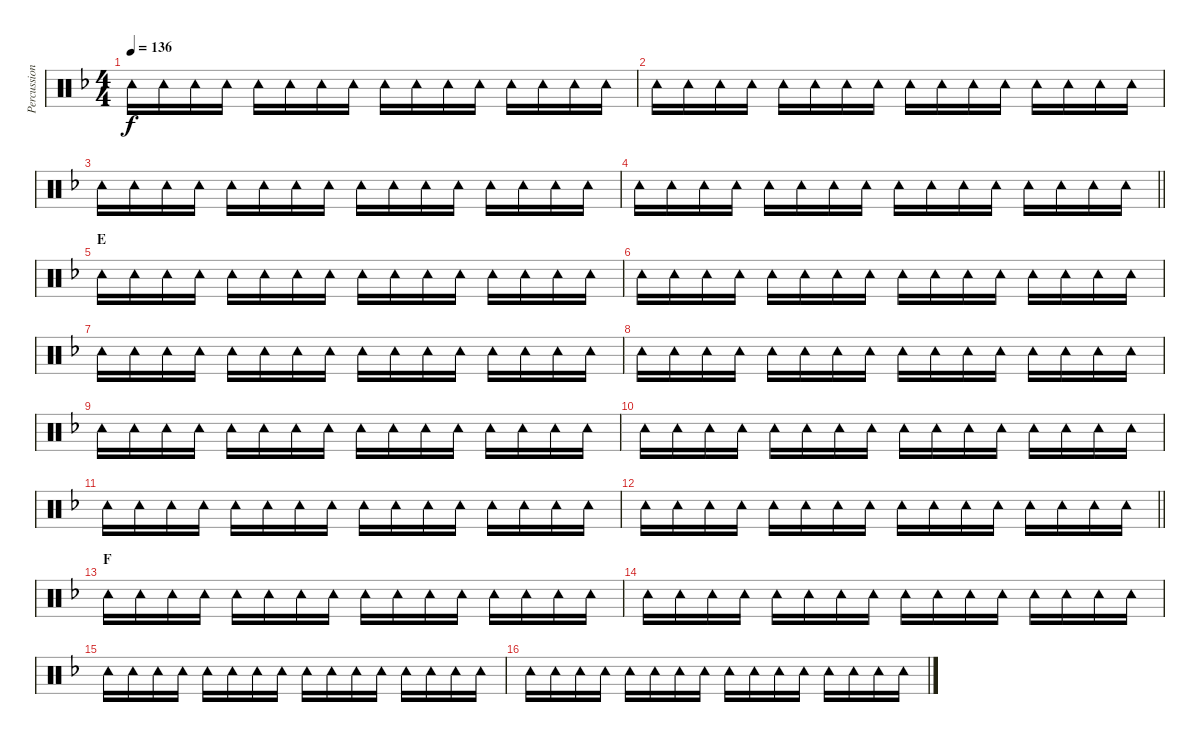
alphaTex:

\track ("Percussion" "Percussion") {instrument percussion}
\staff {score}
\articulation defaults
\ts (4 4)
\tempo 136
\clef neutral
\ks dminor "Tambourine (hit)".16{dy f} "Tambourine (hit)".16 "Tambourine (hit)".16 "Tambourine (hit)".16 "Tambourine (hit)".16 "Tambourine (hit)".16 "Tambourine (hit)".16 "Tambourine (hit)".16 "Tambourine (hit)".16 "Tambourine (hit)".16 "Tambourine (hit)".16 "Tambourine (hit)".16 "Tambourine (hit)".16 "Tambourine (hit)".16 "Tambourine (hit)".16 "Tambourine (hit)".16
|
"Tambourine (hit)".16 "Tambourine (hit)".16 "Tambourine (hit)".16 "Tambourine (hit)".16 "Tambourine (hit)".16 "Tambourine (hit)".16 "Tambourine (hit)".16 "Tambourine (hit)".16 "Tambourine (hit)".16 "Tambourine (hit)".16 "Tambourine (hit)".16 "Tambourine (hit)".16 "Tambourine (hit)".16 "Tambourine (hit)".16 "Tambourine (hit)".16 "Tambourine (hit)".16 |
"Tambourine (hit)".16 "Tambourine (hit)".16 "Tambourine (hit)".16 "Tambourine (hit)".16 "Tambourine (hit)".16 "Tambourine (hit)".16 "Tambourine (hit)".16 "Tambourine (hit)".16 "Tambourine (hit)".16 "Tambourine (hit)".16 "Tambourine (hit)".16 "Tambourine (hit)".16 "Tambourine (hit)".16 "Tambourine (hit)".16 "Tambourine (hit)".16 "Tambourine (hit)".16 |
\barLineRight lightlight "Tambourine (hit)".16 "Tambourine (hit)".16 "Tambourine (hit)".16 "Tambourine (hit)".16 "Tambourine (hit)".16 "Tambourine (hit)".16 "Tambourine (hit)".16 "Tambourine (hit)".16 "Tambourine (hit)".16 "Tambourine (hit)".16 "Tambourine (hit)".16 "Tambourine (hit)".16 "Tambourine (hit)".16 "Tambourine (hit)".16 "Tambourine (hit)".16 "Tambourine (hit)".16
|
\section ("" "E")
"Tambourine (hit)".16 "Tambourine (hit)".16 "Tambourine (hit)".16 "Tambourine (hit)".16 "Tambourine (hit)".16 "Tambourine (hit)".16 "Tambourine (hit)".16 "Tambourine (hit)".16 "Tambourine (hit)".16 "Tambourine (hit)".16 "Tambourine (hit)".16 "Tambourine (hit)".16 "Tambourine (hit)".16 "Tambourine (hit)".16 "Tambourine (hit)".16 "Tambourine (hit)".16 |
"Tambourine (hit)".16 "Tambourine (hit)".16 "Tambourine (hit)".16 "Tambourine (hit)".16 "Tambourine (hit)".16 "Tambourine (hit)".16 "Tambourine (hit)".16 "Tambourine (hit)".16 "Tambourine (hit)".16 "Tambourine (hit)".16 "Tambourine (hit)".16 "Tambourine (hit)".16 "Tambourine (hit)".16 "Tambourine (hit)".16 "Tambourine (hit)".16 "Tambourine (hit)".16 |
"Tambourine (hit)".16 "Tambourine (hit)".16 "Tambourine (hit)".16 "Tambourine (hit)".16 "Tambourine (hit)".16 "Tambourine (hit)".16 "Tambourine (hit)".16 "Tambourine (hit)".16 "Tambourine (hit)".16 "Tambourine (hit)".16 "Tambourine (hit)".16 "Tambourine (hit)".16 "Tambourine (hit)".16 "Tambourine (hit)".16 "Tambourine (hit)".16 "Tambourine (hit)".16 |
"Tambourine (hit)".16 "Tambourine (hit)".16 "Tambourine (hit)".16 "Tambourine (hit)".16 "Tambourine (hit)".16 "Tambourine (hit)".16 "Tambourine (hit)".16 "Tambourine (hit)".16 "Tambourine (hit)".16 "Tambourine (hit)".16 "Tambourine (hit)".16 "Tambourine (hit)".16 "Tambourine (hit)".16 "Tambourine (hit)".16 "Tambourine (hit)".16 "Tambourine (hit)".16 |
"Tambourine (hit)".16 "Tambourine (hit)".16 "Tambourine (hit)".16 "Tambourine (hit)".16 "Tambourine (hit)".16 "Tambourine (hit)".16 "Tambourine (hit)".16 "Tambourine (hit)".16 "Tambourine (hit)".16 "Tambourine (hit)".16 "Tambourine (hit)".16 "Tambourine (hit)".16 "Tambourine (hit)".16 "Tambourine (hit)".16 "Tambourine (hit)".16 "Tambourine (hit)".16 |
"Tambourine (hit)".16 "Tambourine (hit)".16 "Tambourine (hit)".16 "Tambourine (hit)".16 "Tambourine (hit)".16 "Tambourine (hit)".16 "Tambourine (hit)".16 "Tambourine (hit)".16 "Tambourine (hit)".16 "Tambourine (hit)".16 "Tambourine (hit)".16 "Tambourine (hit)".16 "Tambourine (hit)".16 "Tambourine (hit)".16 "Tambourine (hit)".16 "Tambourine (hit)".16 |
"Tambourine (hit)".16 "Tambourine (hit)".16 "Tambourine (hit)".16 "Tambourine (hit)".16 "Tambourine (hit)".16 "Tambourine (hit)".16 "Tambourine (hit)".16 "Tambourine (hit)".16 "Tambourine (hit)".16 "Tambourine (hit)".16 "Tambourine (hit)".16 "Tambourine (hit)".16 "Tambourine (hit)".16 "Tambourine (hit)".16 "Tambourine (hit)".16 "Tambourine (hit)".16 |
\barLineRight lightlight "Tambourine (hit)".16 "Tambourine (hit)".16 "Tambourine (hit)".16 "Tambourine (hit)".16 "Tambourine (hit)".16 "Tambourine (hit)".16 "Tambourine (hit)".16 "Tambourine (hit)".16 "Tambourine (hit)".16 "Tambourine (hit)".16 "Tambourine (hit)".16 "Tambourine (hit)".16 "Tambourine (hit)".16 "Tambourine (hit)".16 "Tambourine (hit)".16 "Tambourine (hit)".16
|
\section ("" "F")
"Tambourine (hit)".16 "Tambourine (hit)".16 "Tambourine (hit)".16 "Tambourine (hit)".16 "Tambourine (hit)".16 "Tambourine (hit)".16 "Tambourine (hit)".16 "Tambourine (hit)".16 "Tambourine (hit)".16 "Tambourine (hit)".16 "Tambourine (hit)".16 "Tambourine (hit)".16 "Tambourine (hit)".16 "Tambourine (hit)".16 "Tambourine (hit)".16 "Tambourine (hit)".16 |
"Tambourine (hit)".16 "Tambourine (hit)".16 "Tambourine (hit)".16 "Tambourine (hit)".16 "Tambourine (hit)".16 "Tambourine (hit)".16 "Tambourine (hit)".16 "Tambourine (hit)".16 "Tambourine (hit)".16 "Tambourine (hit)".16 "Tambourine (hit)".16 "Tambourine (hit)".16 "Tambourine (hit)".16 "Tambourine (hit)".16 "Tambourine (hit)".16 "Tambourine (hit)".16 |
"Tambourine (hit)".16 "Tambourine (hit)".16 "Tambourine (hit)".16 "Tambourine (hit)".16 "Tambourine (hit)".16 "Tambourine (hit)".16 "Tambourine (hit)".16 "Tambourine (hit)".16 "Tambourine (hit)".16 "Tambourine (hit)".16 "Tambourine (hit)".16 "Tambourine (hit)".16 "Tambourine (hit)".16 "Tambourine (hit)".16 "Tambourine (hit)".16 "Tambourine (hit)".16 |
"Tambourine (hit)".16 "Tambourine (hit)".16 "Tambourine (hit)".16 "Tambourine (hit)".16 "Tambourine (hit)".16 "Tambourine (hit)".16 "Tambourine (hit)".16 "Tambourine (hit)".16 "Tambourine (hit)".16 "Tambourine (hit)".16 "Tambourine (hit)".16 "Tambourine (hit)".16 "Tambourine (hit)".16 "Tambourine (hit)".16 "Tambourine (hit)".16 "Tambourine (hit)".16
